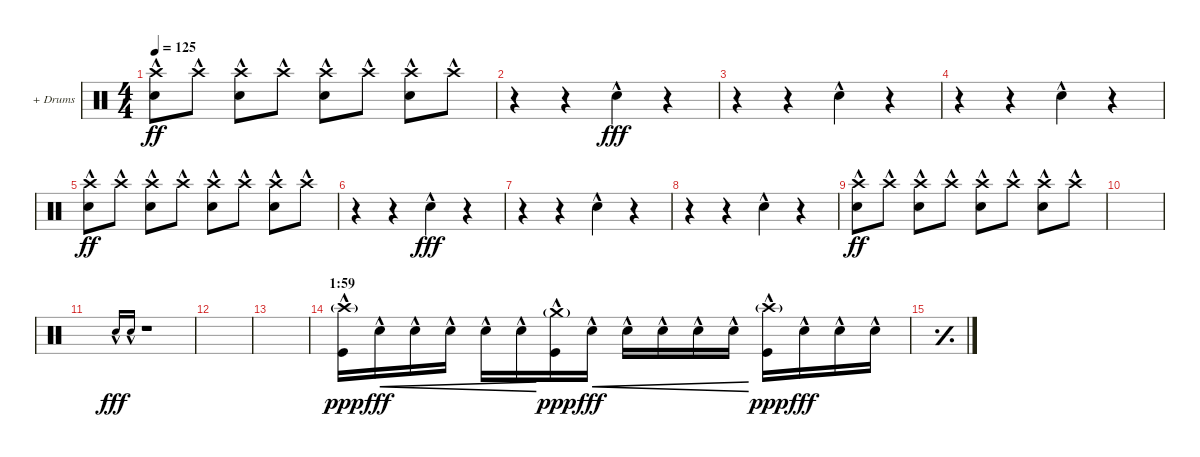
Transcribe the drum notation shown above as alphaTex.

\defaultSystemsLayout 4
\bracketExtendMode groupsimilarinstruments
\firstSystemTrackNameOrientation horizontal
\otherSystemsTrackNameOrientation horizontal
\track ("+ Drums" "+ Drums") {instrument percussion}
\staff {score}
\articulation defaults
\ts (4 4)
\tempo 125
\clef neutral
\scale
0.333333
\ks c
("Crash high (hit)"{hac} "Snare (hit) 2"{hac}).8{dy ff} "Crash high (hit)"{hac}.8 ("Crash high (hit)"{hac} "Snare (hit) 2"{hac}).8 "Crash high (hit)"{hac}.8 ("Crash high (hit)"{hac} "Snare (hit) 2"{hac}).8 "Crash high (hit)"{hac}.8 ("Crash high (hit)"{hac} "Snare (hit) 2"{hac}).8 "Crash high (hit)"{hac}.8 |
\scale
0.333333 r.4 r.4 "Snare (hit) 2"{hac}.4{dy fff} r.4 |
\scale
0.333333 r.4 r.4 "Snare (hit) 2"{hac}.4 r.4 |
\scale
0.333333 r.4 r.4 "Snare (hit) 2"{hac}.4 r.4 |
\scale
0.333333 ("Crash high (hit)"{hac} "Snare (hit) 2"{hac}).8{dy ff} "Crash high (hit)"{hac}.8 ("Crash high (hit)"{hac} "Snare (hit) 2"{hac}).8 "Crash high (hit)"{hac}.8 ("Crash high (hit)"{hac} "Snare (hit) 2"{hac}).8 "Crash high (hit)"{hac}.8 ("Crash high (hit)"{hac} "Snare (hit) 2"{hac}).8 "Crash high (hit)"{hac}.8 |
\scale
0.333333 r.4 r.4 "Snare (hit) 2"{hac}.4{dy fff} r.4 |
\scale
0.333333 r.4 r.4 "Snare (hit) 2"{hac}.4 r.4 |
\scale
0.333333 r.4 r.4 "Snare (hit) 2"{hac}.4 r.4 |
\scale
0.333333 ("Crash high (hit)"{hac} "Snare (hit) 2"{hac}).8{dy ff} "Crash high (hit)"{hac}.8 ("Crash high (hit)"{hac} "Snare (hit) 2"{hac}).8 "Crash high (hit)"{hac}.8 ("Crash high (hit)"{hac} "Snare (hit) 2"{hac}).8 "Crash high (hit)"{hac}.8 ("Crash high (hit)"{hac} "Snare (hit) 2"{hac}).8 "Crash high (hit)"{hac}.8 |
|
"Snare (hit) 2"{hac}.16{gr onbeat dy fff} "Snare (hit) 2"{hac}.16{gr onbeat} r.1 |
|
|
\section ("" "1:59")
("Crash high (hit)"{g} "Kick (hit)"{hac}).16{dy ppp} "Snare (hit) 2"{hac}.16{cre dy fff} "Snare (hit) 2"{hac}.16{cre} "Snare (hit) 2"{hac}.16{cre} "Snare (hit) 2"{hac}.16{cre} "Snare (hit) 2"{hac}.16{cre} ("Crash medium (hit)"{g} "Kick (hit)"{hac}).16{dy ppp} "Snare (hit) 2"{hac}.16{cre dy fff} "Snare (hit) 2"{hac}.16{cre} "Snare (hit) 2"{hac}.16{cre} "Snare (hit) 2"{hac}.16{cre} "Snare (hit) 2"{hac}.16{cre} ("Crash high (hit)"{g} "Kick (hit)"{hac}).16{dy ppp} "Snare (hit) 2"{hac}.16{dy fff} "Snare (hit) 2"{hac}.16 "Snare (hit) 2"{hac}.16 |
\simile simple
